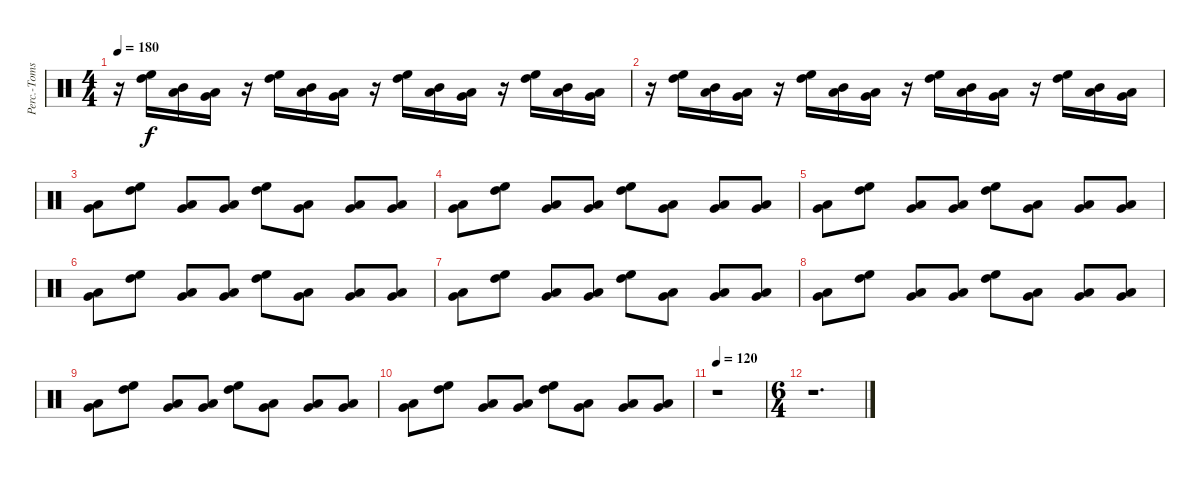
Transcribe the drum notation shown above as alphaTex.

\track ("Perc.-Toms 2" "Perc.-Toms") {instrument percussion}
\staff {score}
\articulation defaults
\ts (4 4)
\tempo 180
\clef neutral
\ks c
r.16{dy f} ("High Floor Tom (hit)" "High Tom (hit)").16 ("Mid Tom (hit)" "Low Tom (hit)").16 ("Very Low Tom (hit)" "Low Floor Tom (hit)").16 r.16 ("High Floor Tom (hit)" "High Tom (hit)").16 ("Mid Tom (hit)" "Low Tom (hit)").16 ("Very Low Tom (hit)" "Low Floor Tom (hit)").16 r.16 ("High Floor Tom (hit)" "High Tom (hit)").16 ("Mid Tom (hit)" "Low Tom (hit)").16 ("Very Low Tom (hit)" "Low Floor Tom (hit)").16 r.16 ("High Floor Tom (hit)" "High Tom (hit)").16 ("Mid Tom (hit)" "Low Tom (hit)").16 ("Very Low Tom (hit)" "Low Floor Tom (hit)").16 |
r.16 ("High Floor Tom (hit)" "High Tom (hit)").16 ("Mid Tom (hit)" "Low Tom (hit)").16 ("Very Low Tom (hit)" "Low Floor Tom (hit)").16 r.16 ("High Floor Tom (hit)" "High Tom (hit)").16 ("Mid Tom (hit)" "Low Tom (hit)").16 ("Very Low Tom (hit)" "Low Floor Tom (hit)").16 r.16 ("High Floor Tom (hit)" "High Tom (hit)").16 ("Mid Tom (hit)" "Low Tom (hit)").16 ("Very Low Tom (hit)" "Low Floor Tom (hit)").16 r.16 ("High Floor Tom (hit)" "High Tom (hit)").16 ("Mid Tom (hit)" "Low Tom (hit)").16 ("Very Low Tom (hit)" "Low Floor Tom (hit)").16 |
("Very Low Tom (hit)" "Low Floor Tom (hit)").8 ("High Floor Tom (hit)" "High Tom (hit)").8 ("Very Low Tom (hit)" "Low Floor Tom (hit)").8 ("Very Low Tom (hit)" "Low Floor Tom (hit)").8 ("High Floor Tom (hit)" "High Tom (hit)").8 ("Very Low Tom (hit)" "Low Floor Tom (hit)").8 ("Very Low Tom (hit)" "Low Floor Tom (hit)").8 ("Very Low Tom (hit)" "Low Floor Tom (hit)").8 |
("Very Low Tom (hit)" "Low Floor Tom (hit)").8 ("High Floor Tom (hit)" "High Tom (hit)").8 ("Very Low Tom (hit)" "Low Floor Tom (hit)").8 ("Very Low Tom (hit)" "Low Floor Tom (hit)").8 ("High Floor Tom (hit)" "High Tom (hit)").8 ("Very Low Tom (hit)" "Low Floor Tom (hit)").8 ("Very Low Tom (hit)" "Low Floor Tom (hit)").8 ("Very Low Tom (hit)" "Low Floor Tom (hit)").8 |
("Very Low Tom (hit)" "Low Floor Tom (hit)").8 ("High Floor Tom (hit)" "High Tom (hit)").8 ("Very Low Tom (hit)" "Low Floor Tom (hit)").8 ("Very Low Tom (hit)" "Low Floor Tom (hit)").8 ("High Floor Tom (hit)" "High Tom (hit)").8 ("Very Low Tom (hit)" "Low Floor Tom (hit)").8 ("Very Low Tom (hit)" "Low Floor Tom (hit)").8 ("Very Low Tom (hit)" "Low Floor Tom (hit)").8 |
("Very Low Tom (hit)" "Low Floor Tom (hit)").8 ("High Floor Tom (hit)" "High Tom (hit)").8 ("Very Low Tom (hit)" "Low Floor Tom (hit)").8 ("Very Low Tom (hit)" "Low Floor Tom (hit)").8 ("High Floor Tom (hit)" "High Tom (hit)").8 ("Very Low Tom (hit)" "Low Floor Tom (hit)").8 ("Very Low Tom (hit)" "Low Floor Tom (hit)").8 ("Very Low Tom (hit)" "Low Floor Tom (hit)").8 |
("Very Low Tom (hit)" "Low Floor Tom (hit)").8 ("High Floor Tom (hit)" "High Tom (hit)").8 ("Very Low Tom (hit)" "Low Floor Tom (hit)").8 ("Very Low Tom (hit)" "Low Floor Tom (hit)").8 ("High Floor Tom (hit)" "High Tom (hit)").8 ("Very Low Tom (hit)" "Low Floor Tom (hit)").8 ("Very Low Tom (hit)" "Low Floor Tom (hit)").8 ("Very Low Tom (hit)" "Low Floor Tom (hit)").8 |
("Very Low Tom (hit)" "Low Floor Tom (hit)").8 ("High Floor Tom (hit)" "High Tom (hit)").8 ("Very Low Tom (hit)" "Low Floor Tom (hit)").8 ("Very Low Tom (hit)" "Low Floor Tom (hit)").8 ("High Floor Tom (hit)" "High Tom (hit)").8 ("Very Low Tom (hit)" "Low Floor Tom (hit)").8 ("Very Low Tom (hit)" "Low Floor Tom (hit)").8 ("Very Low Tom (hit)" "Low Floor Tom (hit)").8 |
("Very Low Tom (hit)" "Low Floor Tom (hit)").8 ("High Floor Tom (hit)" "High Tom (hit)").8 ("Very Low Tom (hit)" "Low Floor Tom (hit)").8 ("Very Low Tom (hit)" "Low Floor Tom (hit)").8 ("High Floor Tom (hit)" "High Tom (hit)").8 ("Very Low Tom (hit)" "Low Floor Tom (hit)").8 ("Very Low Tom (hit)" "Low Floor Tom (hit)").8 ("Very Low Tom (hit)" "Low Floor Tom (hit)").8 |
("Very Low Tom (hit)" "Low Floor Tom (hit)").8 ("High Floor Tom (hit)" "High Tom (hit)").8 ("Very Low Tom (hit)" "Low Floor Tom (hit)").8 ("Very Low Tom (hit)" "Low Floor Tom (hit)").8 ("High Floor Tom (hit)" "High Tom (hit)").8 ("Very Low Tom (hit)" "Low Floor Tom (hit)").8 ("Very Low Tom (hit)" "Low Floor Tom (hit)").8 ("Very Low Tom (hit)" "Low Floor Tom (hit)").8 |
\tempo 120
r.1 |
\ts (6 4)
r.1{d}
